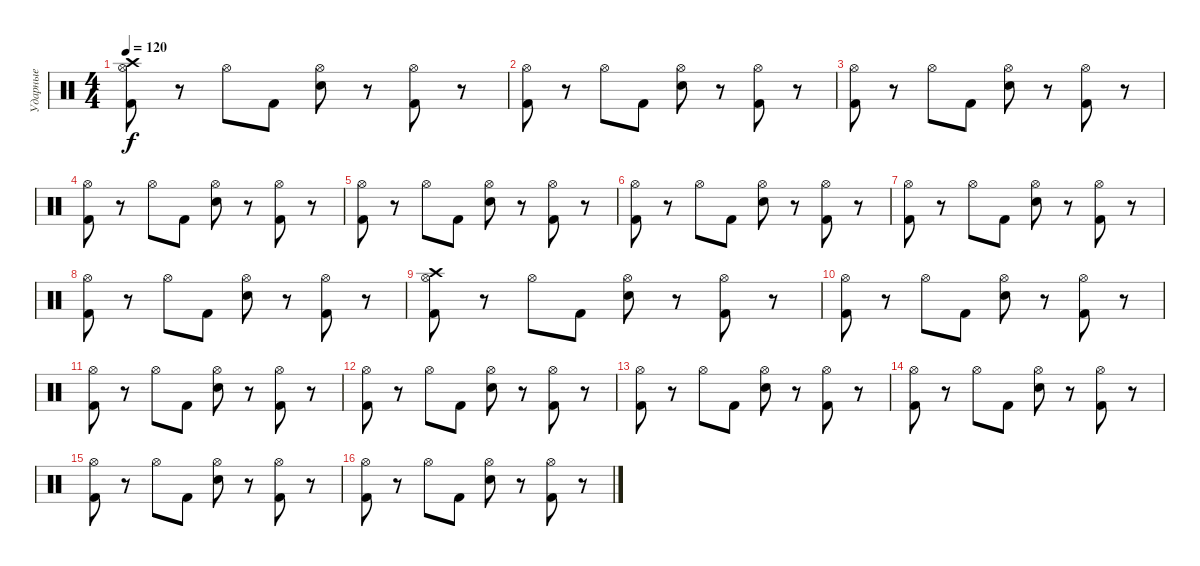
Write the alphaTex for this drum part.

\track ("Ударные" "Ударные") {instrument percussion}
\staff {score}
\articulation defaults
\ts (4 4)
\tempo 120
\clef neutral
\ks c
("Hi-Hat (open)" "Crash high (hit)" "Kick (hit) 2").8{dy f} r.8 "Hi-Hat (open)".8 "Kick (hit) 2".8 ("Hi-Hat (open)" "Electric Snare (hit)").8 r.8 ("Hi-Hat (open)" "Kick (hit) 2").8 r.8 |
("Hi-Hat (open)" "Kick (hit) 2").8 r.8 "Hi-Hat (open)".8 "Kick (hit) 2".8 ("Hi-Hat (open)" "Electric Snare (hit)").8 r.8 ("Hi-Hat (open)" "Kick (hit) 2").8 r.8 |
("Hi-Hat (open)" "Kick (hit) 2").8 r.8 "Hi-Hat (open)".8 "Kick (hit) 2".8 ("Hi-Hat (open)" "Electric Snare (hit)").8 r.8 ("Hi-Hat (open)" "Kick (hit) 2").8 r.8 |
("Hi-Hat (open)" "Kick (hit) 2").8 r.8 "Hi-Hat (open)".8 "Kick (hit) 2".8 ("Hi-Hat (open)" "Electric Snare (hit)").8 r.8 ("Hi-Hat (open)" "Kick (hit) 2").8 r.8 |
("Hi-Hat (open)" "Kick (hit) 2").8 r.8 "Hi-Hat (open)".8 "Kick (hit) 2".8 ("Hi-Hat (open)" "Electric Snare (hit)").8 r.8 ("Hi-Hat (open)" "Kick (hit) 2").8 r.8 |
("Hi-Hat (open)" "Kick (hit) 2").8 r.8 "Hi-Hat (open)".8 "Kick (hit) 2".8 ("Hi-Hat (open)" "Electric Snare (hit)").8 r.8 ("Hi-Hat (open)" "Kick (hit) 2").8 r.8 |
("Hi-Hat (open)" "Kick (hit) 2").8 r.8 "Hi-Hat (open)".8 "Kick (hit) 2".8 ("Hi-Hat (open)" "Electric Snare (hit)").8 r.8 ("Hi-Hat (open)" "Kick (hit) 2").8 r.8 |
("Hi-Hat (open)" "Kick (hit) 2").8 r.8 "Hi-Hat (open)".8 "Kick (hit) 2".8 ("Hi-Hat (open)" "Electric Snare (hit)").8 r.8 ("Hi-Hat (open)" "Kick (hit) 2").8 r.8 |
("Hi-Hat (open)" "Crash high (hit)" "Kick (hit) 2").8 r.8 "Hi-Hat (open)".8 "Kick (hit) 2".8 ("Hi-Hat (open)" "Electric Snare (hit)").8 r.8 ("Hi-Hat (open)" "Kick (hit) 2").8 r.8 |
("Hi-Hat (open)" "Kick (hit) 2").8 r.8 "Hi-Hat (open)".8 "Kick (hit) 2".8 ("Hi-Hat (open)" "Electric Snare (hit)").8 r.8 ("Hi-Hat (open)" "Kick (hit) 2").8 r.8 |
("Hi-Hat (open)" "Kick (hit) 2").8 r.8 "Hi-Hat (open)".8 "Kick (hit) 2".8 ("Hi-Hat (open)" "Electric Snare (hit)").8 r.8 ("Hi-Hat (open)" "Kick (hit) 2").8 r.8 |
("Hi-Hat (open)" "Kick (hit) 2").8 r.8 "Hi-Hat (open)".8 "Kick (hit) 2".8 ("Hi-Hat (open)" "Electric Snare (hit)").8 r.8 ("Hi-Hat (open)" "Kick (hit) 2").8 r.8 |
("Hi-Hat (open)" "Kick (hit) 2").8 r.8 "Hi-Hat (open)".8 "Kick (hit) 2".8 ("Hi-Hat (open)" "Electric Snare (hit)").8 r.8 ("Hi-Hat (open)" "Kick (hit) 2").8 r.8 |
("Hi-Hat (open)" "Kick (hit) 2").8 r.8 "Hi-Hat (open)".8 "Kick (hit) 2".8 ("Hi-Hat (open)" "Electric Snare (hit)").8 r.8 ("Hi-Hat (open)" "Kick (hit) 2").8 r.8 |
("Hi-Hat (open)" "Kick (hit) 2").8 r.8 "Hi-Hat (open)".8 "Kick (hit) 2".8 ("Hi-Hat (open)" "Electric Snare (hit)").8 r.8 ("Hi-Hat (open)" "Kick (hit) 2").8 r.8 |
("Hi-Hat (open)" "Kick (hit) 2").8 r.8 "Hi-Hat (open)".8 "Kick (hit) 2".8 ("Hi-Hat (open)" "Electric Snare (hit)").8 r.8 ("Hi-Hat (open)" "Kick (hit) 2").8 r.8
